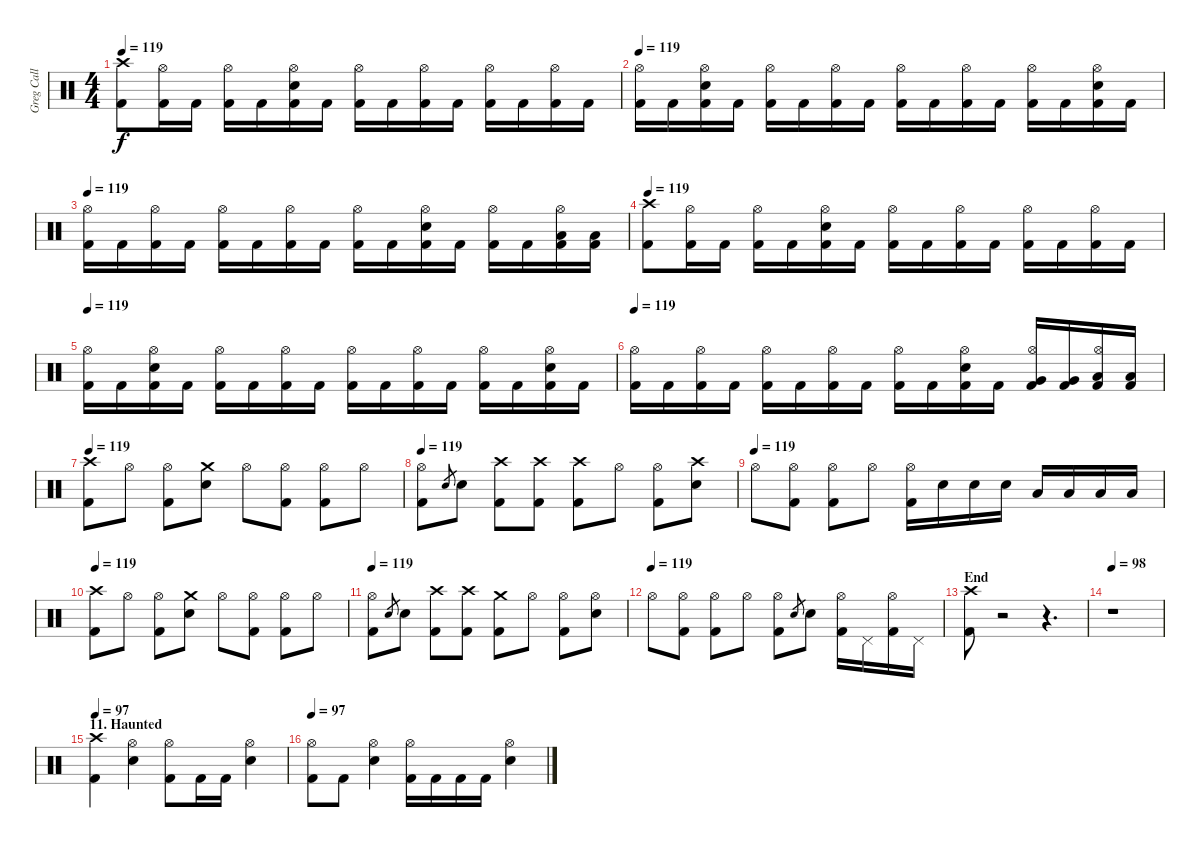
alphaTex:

\track ("Greg Call (Drums)" "Greg Call ") {instrument percussion}
\staff {score}
\articulation defaults
\ts (4 4)
\tempo 119
\clef neutral
\ks c
("Crash high (hit)" "Kick (hit) 2").8{dy f} ("Hi-Hat (open)" "Kick (hit) 2").16 "Kick (hit) 2".16 ("Hi-Hat (open)" "Kick (hit) 2").16 "Kick (hit) 2".16 ("Snare (hit) 2" "Hi-Hat (open)" "Kick (hit) 2").16 "Kick (hit) 2".16 ("Hi-Hat (open)" "Kick (hit) 2").16 "Kick (hit) 2".16 ("Hi-Hat (open)" "Kick (hit) 2").16 "Kick (hit) 2".16 ("Hi-Hat (open)" "Kick (hit) 2").16 "Kick (hit) 2".16 ("Hi-Hat (open)" "Kick (hit) 2").16 "Kick (hit) 2".16 |
\tempo 119
("Hi-Hat (open)" "Kick (hit) 2").16 "Kick (hit) 2".16 ("Snare (hit) 2" "Hi-Hat (open)" "Kick (hit) 2").16 "Kick (hit) 2".16 ("Hi-Hat (open)" "Kick (hit) 2").16 "Kick (hit) 2".16 ("Hi-Hat (open)" "Kick (hit) 2").16 "Kick (hit) 2".16 ("Hi-Hat (open)" "Kick (hit) 2").16 "Kick (hit) 2".16 ("Hi-Hat (open)" "Kick (hit) 2").16 "Kick (hit) 2".16 ("Hi-Hat (open)" "Kick (hit) 2").16 "Kick (hit) 2".16 ("Snare (hit) 2" "Hi-Hat (open)" "Kick (hit) 2").16 "Kick (hit) 2".16 |
\tempo 119
("Hi-Hat (open)" "Kick (hit) 2").16 "Kick (hit) 2".16 ("Hi-Hat (open)" "Kick (hit) 2").16 "Kick (hit) 2".16 ("Hi-Hat (open)" "Kick (hit) 2").16 "Kick (hit) 2".16 ("Hi-Hat (open)" "Kick (hit) 2").16 "Kick (hit) 2".16 ("Hi-Hat (open)" "Kick (hit) 2").16 "Kick (hit) 2".16 ("Hi-Hat (open)" "Snare (hit) 2" "Kick (hit) 2").16 "Kick (hit) 2".16 ("Hi-Hat (open)" "Kick (hit) 2").16 "Kick (hit) 2".16 ("Low Floor Tom (hit)" "Hi-Hat (open)" "Kick (hit) 2").16 ("Low Floor Tom (hit)" "Kick (hit) 2").16 |
\tempo 119
("Crash high (hit)" "Kick (hit) 2").8 ("Hi-Hat (open)" "Kick (hit) 2").16 "Kick (hit) 2".16 ("Hi-Hat (open)" "Kick (hit) 2").16 "Kick (hit) 2".16 ("Snare (hit) 2" "Hi-Hat (open)" "Kick (hit) 2").16 "Kick (hit) 2".16 ("Hi-Hat (open)" "Kick (hit) 2").16 "Kick (hit) 2".16 ("Hi-Hat (open)" "Kick (hit) 2").16 "Kick (hit) 2".16 ("Hi-Hat (open)" "Kick (hit) 2").16 "Kick (hit) 2".16 ("Hi-Hat (open)" "Kick (hit) 2").16 "Kick (hit) 2".16 |
\tempo 119
("Hi-Hat (open)" "Kick (hit) 2").16 "Kick (hit) 2".16 ("Snare (hit) 2" "Hi-Hat (open)" "Kick (hit) 2").16 "Kick (hit) 2".16 ("Hi-Hat (open)" "Kick (hit) 2").16 "Kick (hit) 2".16 ("Hi-Hat (open)" "Kick (hit) 2").16 "Kick (hit) 2".16 ("Hi-Hat (open)" "Kick (hit) 2").16 "Kick (hit) 2".16 ("Hi-Hat (open)" "Kick (hit) 2").16 "Kick (hit) 2".16 ("Hi-Hat (open)" "Kick (hit) 2").16 "Kick (hit) 2".16 ("Snare (hit) 2" "Hi-Hat (open)" "Kick (hit) 2").16 "Kick (hit) 2".16 |
\tempo 119
("Hi-Hat (open)" "Kick (hit) 2").16 "Kick (hit) 2".16 ("Hi-Hat (open)" "Kick (hit) 2").16 "Kick (hit) 2".16 ("Hi-Hat (open)" "Kick (hit) 2").16 "Kick (hit) 2".16 ("Hi-Hat (open)" "Kick (hit) 2").16 "Kick (hit) 2".16 ("Hi-Hat (open)" "Kick (hit) 2").16 "Kick (hit) 2".16 ("Hi-Hat (open)" "Snare (hit) 2" "Kick (hit) 2").16 "Kick (hit) 2".16 ("Very Low Tom (hit)" "Hi-Hat (open)" "Kick (hit) 2").16 ("Very Low Tom (hit)" "Kick (hit) 2").16 ("Low Floor Tom (hit)" "Hi-Hat (open)" "Kick (hit) 2").16 ("Low Floor Tom (hit)" "Kick (hit) 2").16 |
\tempo 119
("Crash high (hit)" "Kick (hit) 2").8 "Hi-Hat (open)".8 ("Hi-Hat (open)" "Kick (hit) 2").8 ("Crash medium (hit)" "Snare (hit) 2").8 "Hi-Hat (open)".8 ("Hi-Hat (open)" "Kick (hit) 2").8 ("Hi-Hat (open)" "Kick (hit) 2").8 "Hi-Hat (open)".8 |
\tempo 119
("Hi-Hat (open)" "Kick (hit) 2").8 "Snare (hit) 2".8{gr} "Snare (hit) 2".8 ("Crash high (hit)" "Kick (hit) 2").8 ("Crash high (hit)" "Kick (hit) 2").8 ("Crash high (hit)" "Kick (hit) 2").8 "Hi-Hat (open)".8 ("Hi-Hat (open)" "Kick (hit) 2").8 ("Crash high (hit)" "Snare (hit) 2").8 |
\tempo (119)
"Hi-Hat (open)".8 ("Hi-Hat (open)" "Kick (hit) 2").8 ("Hi-Hat (open)" "Kick (hit) 2").8 "Hi-Hat (open)".8 ("Hi-Hat (open)" "Kick (hit) 2").16 "Snare (hit) 2".16 "Snare (hit) 2".16 "Snare (hit) 2".16 "Low Tom (hit)".16 "Low Tom (hit)".16 "Low Floor Tom (hit)".16 "Low Floor Tom (hit)".16 |
\tempo 119
("Crash high (hit)" "Kick (hit) 2").8 "Hi-Hat (open)".8 ("Hi-Hat (open)" "Kick (hit) 2").8 ("Crash medium (hit)" "Snare (hit) 2").8 "Hi-Hat (open)".8 ("Hi-Hat (open)" "Kick (hit) 2").8 ("Hi-Hat (open)" "Kick (hit) 2").8 "Hi-Hat (open)".8 |
\tempo 119
("Hi-Hat (open)" "Kick (hit) 2").8 "Snare (hit) 2".8{gr} "Snare (hit) 2".8 ("Crash high (hit)" "Kick (hit) 2").8 ("Crash high (hit)" "Kick (hit) 2").8 ("Crash medium (hit)" "Kick (hit) 2").8 "Hi-Hat (open)".8 ("Hi-Hat (open)" "Kick (hit) 2").8 ("Hi-Hat (open)" "Snare (hit) 2").8 |
\tempo (119)
"Hi-Hat (open)".8 ("Hi-Hat (open)" "Kick (hit) 2").8 ("Hi-Hat (open)" "Kick (hit) 2").8 "Hi-Hat (open)".8 ("Hi-Hat (open)" "Kick (hit) 2").8 "Snare (hit) 2".8{gr} "Snare (hit) 2".8 ("Hi-Hat (open)" "Kick (hit) 2").16 "Pedal Hi-Hat (hit)".16 ("Hi-Hat (open)" "Kick (hit) 2").16 "Pedal Hi-Hat (hit)".16 |
\section ("" "End")
("Crash high (hit)" "Kick (hit) 2").8 r.2{volume 0} r.4{d} |
\tempo 98
r.1 |
\section ("" "11. Haunted")
\tempo 97
("Crash high (hit)" "Kick (hit) 2").4 ("Hi-Hat (open)" "Snare (hit) 2").4 ("Hi-Hat (open)" "Kick (hit) 2").8 "Kick (hit) 2".16 "Kick (hit) 2".16 ("Hi-Hat (open)" "Snare (hit) 2").4 |
\tempo 97
("Hi-Hat (open)" "Kick (hit) 2").8 "Kick (hit) 2".8 ("Hi-Hat (open)" "Snare (hit) 2").4 ("Hi-Hat (open)" "Kick (hit) 2").16 "Kick (hit) 2".16 "Kick (hit) 2".16 "Kick (hit) 2".16 ("Hi-Hat (open)" "Snare (hit) 2").4
